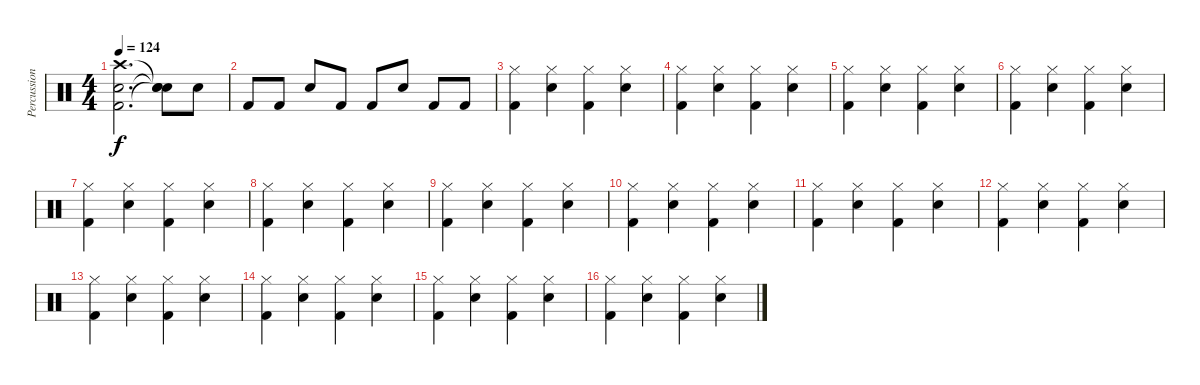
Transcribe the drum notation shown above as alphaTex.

\track ("Percussion" "Percussion") {instrument percussion}
\staff {score}
\articulation defaults
\ts (4 4)
\tempo 124
\clef neutral
\ks c
("Crash high (hit)" "Snare (hit) 2" "Kick (hit) 2").2{d dy f} ("Snare (hit)"{t} "Snare (hit)"{t} "Snare (hit)"{t}).8 "Snare (hit) 2".8 |
"Kick (hit) 2".8 "Kick (hit) 2".8 "Snare (hit) 2".8 "Kick (hit) 2".8 "Kick (hit) 2".8 "Snare (hit) 2".8 "Kick (hit) 2".8 "Kick (hit) 2".8 |
("Hi-Hat (closed)" "Kick (hit) 2").4 ("Hi-Hat (closed)" "Snare (hit) 2").4 ("Hi-Hat (closed)" "Kick (hit) 2").4 ("Hi-Hat (closed)" "Snare (hit) 2").4 |
("Hi-Hat (closed)" "Kick (hit) 2").4 ("Hi-Hat (closed)" "Snare (hit) 2").4 ("Hi-Hat (closed)" "Kick (hit) 2").4 ("Hi-Hat (closed)" "Snare (hit) 2").4 |
("Hi-Hat (closed)" "Kick (hit) 2").4 ("Hi-Hat (closed)" "Snare (hit) 2").4 ("Hi-Hat (closed)" "Kick (hit) 2").4 ("Hi-Hat (closed)" "Snare (hit) 2").4 |
("Hi-Hat (closed)" "Kick (hit) 2").4 ("Hi-Hat (closed)" "Snare (hit) 2").4 ("Hi-Hat (closed)" "Kick (hit) 2").4 ("Hi-Hat (closed)" "Snare (hit) 2").4 |
("Hi-Hat (closed)" "Kick (hit) 2").4 ("Hi-Hat (closed)" "Snare (hit) 2").4 ("Hi-Hat (closed)" "Kick (hit) 2").4 ("Hi-Hat (closed)" "Snare (hit) 2").4 |
("Hi-Hat (closed)" "Kick (hit) 2").4 ("Hi-Hat (closed)" "Snare (hit) 2").4 ("Hi-Hat (closed)" "Kick (hit) 2").4 ("Hi-Hat (closed)" "Snare (hit) 2").4 |
("Hi-Hat (closed)" "Kick (hit) 2").4 ("Hi-Hat (closed)" "Snare (hit) 2").4 ("Hi-Hat (closed)" "Kick (hit) 2").4 ("Hi-Hat (closed)" "Snare (hit) 2").4 |
("Hi-Hat (closed)" "Kick (hit) 2").4 ("Hi-Hat (closed)" "Snare (hit) 2").4 ("Hi-Hat (closed)" "Kick (hit) 2").4 ("Hi-Hat (closed)" "Snare (hit) 2").4 |
("Hi-Hat (closed)" "Kick (hit) 2").4 ("Hi-Hat (closed)" "Snare (hit) 2").4 ("Hi-Hat (closed)" "Kick (hit) 2").4 ("Hi-Hat (closed)" "Snare (hit) 2").4 |
("Hi-Hat (closed)" "Kick (hit) 2").4 ("Hi-Hat (closed)" "Snare (hit) 2").4 ("Hi-Hat (closed)" "Kick (hit) 2").4 ("Hi-Hat (closed)" "Snare (hit) 2").4 |
("Hi-Hat (closed)" "Kick (hit) 2").4 ("Hi-Hat (closed)" "Snare (hit) 2").4 ("Hi-Hat (closed)" "Kick (hit) 2").4 ("Hi-Hat (closed)" "Snare (hit) 2").4 |
("Hi-Hat (closed)" "Kick (hit) 2").4 ("Hi-Hat (closed)" "Snare (hit) 2").4 ("Hi-Hat (closed)" "Kick (hit) 2").4 ("Hi-Hat (closed)" "Snare (hit) 2").4 |
("Hi-Hat (closed)" "Kick (hit) 2").4 ("Hi-Hat (closed)" "Snare (hit) 2").4 ("Hi-Hat (closed)" "Kick (hit) 2").4 ("Hi-Hat (closed)" "Snare (hit) 2").4 |
("Hi-Hat (closed)" "Kick (hit) 2").4 ("Hi-Hat (closed)" "Snare (hit) 2").4 ("Hi-Hat (closed)" "Kick (hit) 2").4 ("Hi-Hat (closed)" "Snare (hit) 2").4
